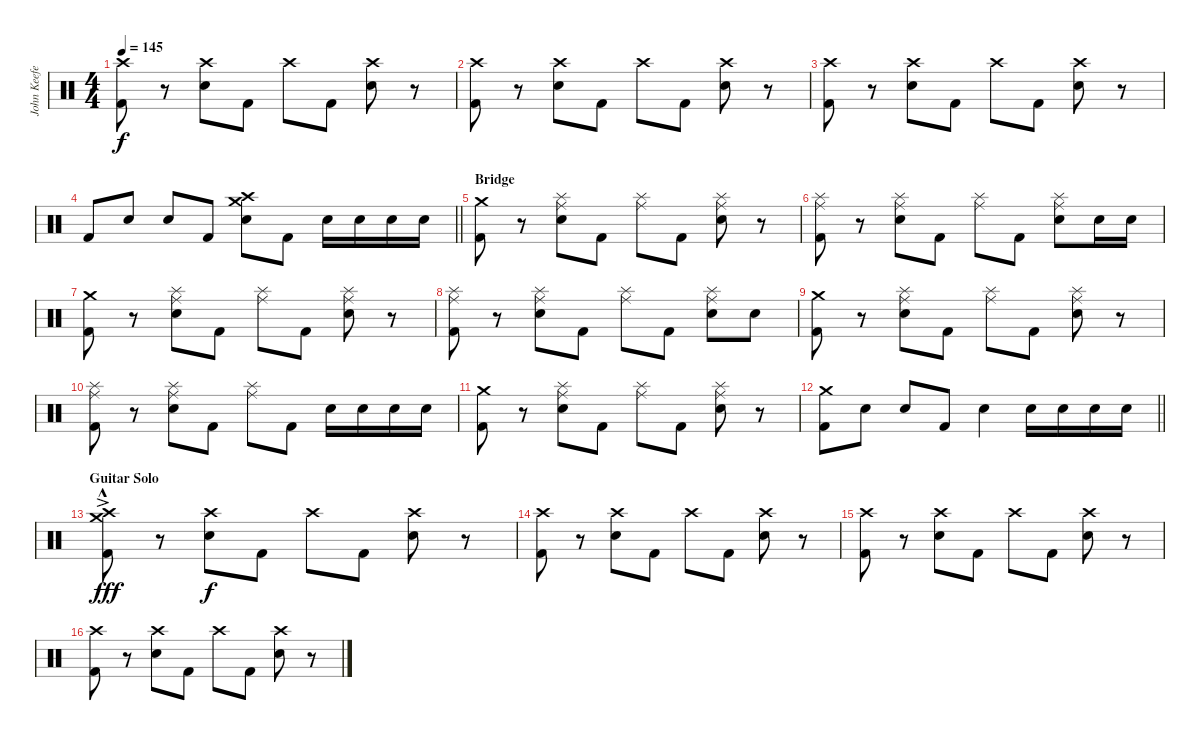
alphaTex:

\track ("John Keefe (Percussion)" "John Keefe") {instrument percussion}
\staff {score}
\articulation defaults
\ts (4 4)
\tempo 145
\clef neutral
\ks c
("Crash high (hit)" "Kick (hit) 2").8{dy f} r.8 ("Crash high (hit)" "Electric Snare (hit)").8 "Kick (hit) 2".8 "Crash high (hit)".8 "Kick (hit) 2".8 ("Crash high (hit)" "Electric Snare (hit)").8 r.8 |
("Crash high (hit)" "Kick (hit) 2").8 r.8 ("Crash high (hit)" "Electric Snare (hit)").8 "Kick (hit) 2".8 "Crash high (hit)".8 "Kick (hit) 2".8 ("Crash high (hit)" "Electric Snare (hit)").8 r.8 |
("Crash high (hit)" "Kick (hit) 2").8 r.8 ("Crash high (hit)" "Electric Snare (hit)").8 "Kick (hit) 2".8 "Crash high (hit)".8 "Kick (hit) 2".8 ("Crash high (hit)" "Electric Snare (hit)").8 r.8 |
\barLineRight lightlight "Kick (hit) 2".8 "Electric Snare (hit)".8 "Electric Snare (hit)".8 "Kick (hit) 2".8
("Crash high (hit)" "Crash medium (hit)" "Electric Snare (hit)").8 "Kick (hit) 2".8 "Electric Snare (hit)".16 "Electric Snare (hit)".16 "Electric Snare (hit)".16 "Electric Snare (hit)".16 |
\section ("" "Bridge")
("Crash medium (hit)" "Kick (hit) 2").8 r.8 ("Ride (middle)" "Splash (hit)" "Electric Snare (hit)").8 "Kick (hit) 2".8 ("Ride (middle)" "Splash (hit)").8 "Kick (hit) 2".8 ("Ride (middle)" "Splash (hit)" "Electric Snare (hit)").8 r.8 |
("Ride (middle)" "Splash (hit)" "Kick (hit) 2").8 r.8 ("Ride (middle)" "Splash (hit)" "Electric Snare (hit)").8 "Kick (hit) 2".8 ("Ride (middle)" "Splash (hit)").8 "Kick (hit) 2".8 ("Ride (middle)" "Splash (hit)" "Electric Snare (hit)").8 "Electric Snare (hit)".16 "Electric Snare (hit)".16 |
("Crash medium (hit)" "Kick (hit) 2").8 r.8 ("Ride (middle)" "Splash (hit)" "Electric Snare (hit)").8 "Kick (hit) 2".8 ("Ride (middle)" "Splash (hit)").8 "Kick (hit) 2".8 ("Ride (middle)" "Splash (hit)" "Electric Snare (hit)").8 r.8 |
("Ride (middle)" "Splash (hit)" "Kick (hit) 2").8 r.8 ("Ride (middle)" "Splash (hit)" "Electric Snare (hit)").8 "Kick (hit) 2".8 ("Ride (middle)" "Splash (hit)").8 "Kick (hit) 2".8 ("Ride (middle)" "Splash (hit)" "Electric Snare (hit)").8 "Electric Snare (hit)".8 |
("Crash medium (hit)" "Kick (hit) 2").8 r.8 ("Ride (middle)" "Splash (hit)" "Electric Snare (hit)").8 "Kick (hit) 2".8 ("Ride (middle)" "Splash (hit)").8 "Kick (hit) 2".8 ("Ride (middle)" "Splash (hit)" "Electric Snare (hit)").8 r.8 |
("Ride (middle)" "Splash (hit)" "Kick (hit) 2").8 r.8 ("Ride (middle)" "Splash (hit)" "Electric Snare (hit)").8 "Kick (hit) 2".8 ("Ride (middle)" "Splash (hit)").8 "Kick (hit) 2".8 "Electric Snare (hit)".16 "Electric Snare (hit)".16 "Electric Snare (hit)".16 "Electric Snare (hit)".16 |
("Crash medium (hit)" "Kick (hit) 2").8 r.8 ("Ride (middle)" "Splash (hit)" "Electric Snare (hit)").8 "Kick (hit) 2".8 ("Ride (middle)" "Splash (hit)").8 "Kick (hit) 2".8 ("Ride (middle)" "Splash (hit)" "Electric Snare (hit)").8 r.8 |
\barLineRight lightlight
("Crash medium (hit)" "Kick (hit) 2").8 "Electric Snare (hit)".8 "Electric Snare (hit)".8 "Kick (hit) 2".8 "Electric Snare (hit)".4 "Electric Snare (hit)".16 "Electric Snare (hit)".16 "Electric Snare (hit)".16 "Electric Snare (hit)".16 |
\section ("" "Guitar Solo")
("Crash high (hit)"{ac} "Crash medium (hit)" "Kick (hit) 2"{hac}).8{dy fff} r.8 ("Crash high (hit)" "Electric Snare (hit)").8{dy f} "Kick (hit) 2".8 "Crash high (hit)".8 "Kick (hit) 2".8 ("Crash high (hit)" "Electric Snare (hit)").8 r.8 |
("Crash high (hit)" "Kick (hit) 2").8 r.8 ("Crash high (hit)" "Electric Snare (hit)").8 "Kick (hit) 2".8 "Crash high (hit)".8 "Kick (hit) 2".8 ("Crash high (hit)" "Electric Snare (hit)").8 r.8 |
("Crash high (hit)" "Kick (hit) 2").8 r.8 ("Crash high (hit)" "Electric Snare (hit)").8 "Kick (hit) 2".8 "Crash high (hit)".8 "Kick (hit) 2".8 ("Crash high (hit)" "Electric Snare (hit)").8 r.8 |
("Crash high (hit)" "Kick (hit) 2").8 r.8 ("Crash high (hit)" "Electric Snare (hit)").8 "Kick (hit) 2".8 "Crash high (hit)".8 "Kick (hit) 2".8 ("Crash high (hit)" "Electric Snare (hit)").8 r.8
